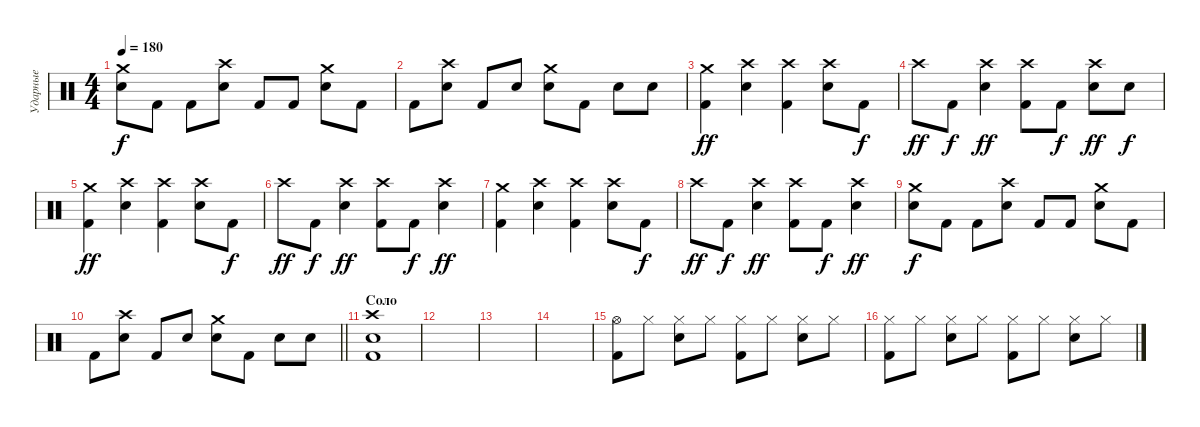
\track ("Ударные" "Ударные") {instrument percussion}
\staff {score}
\articulation defaults
\ts (4 4)
\tempo 180
\clef neutral
\ks c
("Crash medium (hit)" "Snare (hit) 2").8{dy f} "Kick (hit) 2".8 "Kick (hit) 2".8 ("Crash high (hit)" "Snare (hit) 2").8 "Kick (hit) 2".8 "Kick (hit) 2".8 ("Crash medium (hit)" "Snare (hit) 2").8 "Kick (hit) 2".8 |
"Kick (hit) 2".8 ("Crash high (hit)" "Snare (hit) 2").8 "Kick (hit) 2".8 "Snare (hit)".8 ("Crash medium (hit)" "Snare (hit) 2").8 "Kick (hit) 2".8 "Snare (hit) 2".8 "Snare (hit) 2".8 |
("Crash medium (hit)" "Kick (hit) 2").4{dy ff} ("Crash high (hit)" "Snare (hit) 2").4 ("Crash high (hit)" "Kick (hit) 2").4 ("Crash high (hit)" "Snare (hit) 2").8 "Kick (hit) 2".8{dy f} |
"Crash high (hit)".8{dy ff} "Kick (hit) 2".8{dy f} ("Crash high (hit)" "Snare (hit) 2").4{dy ff} ("Crash high (hit)" "Kick (hit) 2").8 "Kick (hit) 2".8{dy f} ("Crash high (hit)" "Snare (hit) 2").8{dy ff} "Snare (hit) 2".8{dy f} |
("Crash medium (hit)" "Kick (hit) 2").4{dy ff} ("Crash high (hit)" "Snare (hit) 2").4 ("Crash high (hit)" "Kick (hit) 2").4 ("Crash high (hit)" "Snare (hit) 2").8 "Kick (hit) 2".8{dy f} |
"Crash high (hit)".8{dy ff} "Kick (hit) 2".8{dy f} ("Crash high (hit)" "Snare (hit) 2").4{dy ff} ("Crash high (hit)" "Kick (hit) 2").8 "Kick (hit) 2".8{dy f} ("Crash high (hit)" "Snare (hit) 2").4{dy ff} |
("Crash medium (hit)" "Kick (hit) 2").4 ("Crash high (hit)" "Snare (hit) 2").4 ("Crash high (hit)" "Kick (hit) 2").4 ("Crash high (hit)" "Snare (hit) 2").8 "Kick (hit) 2".8{dy f} |
"Crash high (hit)".8{dy ff} "Kick (hit) 2".8{dy f} ("Crash high (hit)" "Snare (hit) 2").4{dy ff} ("Crash high (hit)" "Kick (hit) 2").8 "Kick (hit) 2".8{dy f} ("Crash high (hit)" "Snare (hit) 2").4{dy ff} |
("Crash medium (hit)" "Snare (hit) 2").8{dy f} "Kick (hit) 2".8 "Kick (hit) 2".8 ("Crash high (hit)" "Snare (hit) 2").8 "Kick (hit) 2".8 "Kick (hit) 2".8 ("Crash medium (hit)" "Snare (hit) 2").8 "Kick (hit) 2".8 |
\barLineRight lightlight "Kick (hit) 2".8
("Crash high (hit)" "Snare (hit) 2").8 "Kick (hit) 2".8 "Snare (hit)".8 ("Crash medium (hit)" "Snare (hit) 2").8 "Kick (hit) 2".8 "Snare (hit) 2".8 "Snare (hit) 2".8 |
\section ("" "Соло")
("Crash high (hit)" "Snare (hit) 2" "Kick (hit) 2").1 |
|
|
|
("Hi-Hat (open)" "Kick (hit) 2").8 "Hi-Hat (closed)".8 ("Hi-Hat (closed)" "Snare (hit) 2").8 "Hi-Hat (closed)".8 ("Hi-Hat (closed)" "Kick (hit) 2").8 "Hi-Hat (closed)".8 ("Hi-Hat (closed)" "Snare (hit) 2").8 "Hi-Hat (closed)".8 |
("Hi-Hat (closed)" "Kick (hit) 2").8 "Hi-Hat (closed)".8 ("Hi-Hat (closed)" "Snare (hit) 2").8 "Hi-Hat (closed)".8 ("Hi-Hat (closed)" "Kick (hit) 2").8 "Hi-Hat (closed)".8 ("Hi-Hat (closed)" "Snare (hit) 2").8 "Hi-Hat (closed)".8
